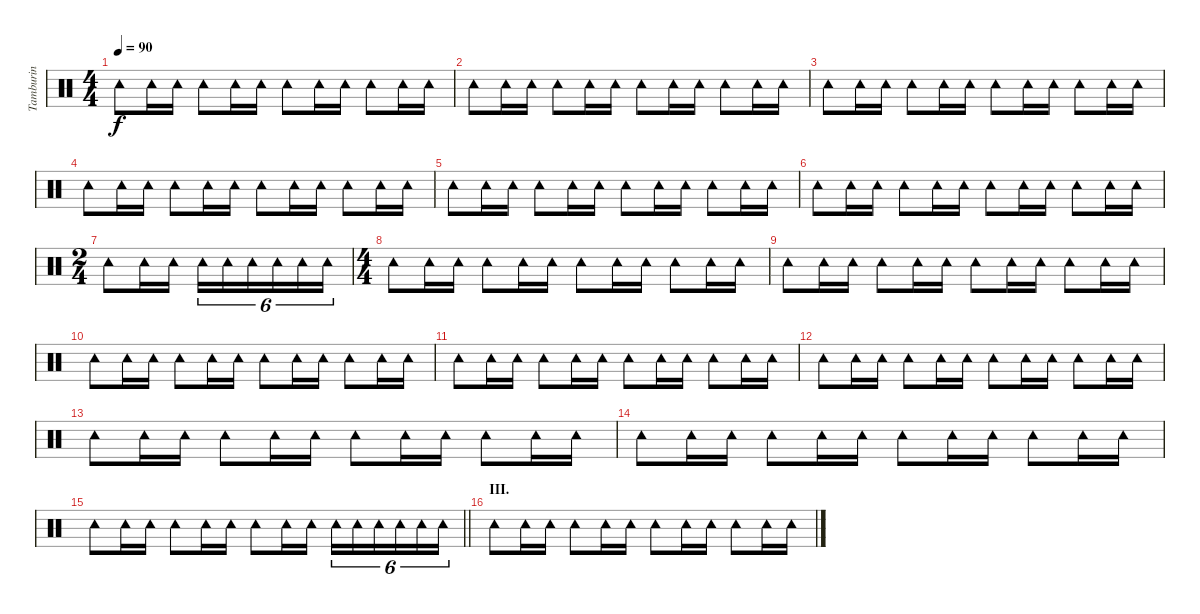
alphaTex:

\track ("Tamburin" "Tamburin") {instrument percussion}
\staff {score}
\articulation defaults
\ts (4 4)
\tempo 90
\clef neutral
\ks c "Tambourine (hit)".8{dy f} "Tambourine (hit)".16 "Tambourine (hit)".16 "Tambourine (hit)".8 "Tambourine (hit)".16 "Tambourine (hit)".16 "Tambourine (hit)".8 "Tambourine (hit)".16 "Tambourine (hit)".16 "Tambourine (hit)".8 "Tambourine (hit)".16 "Tambourine (hit)".16
|
"Tambourine (hit)".8 "Tambourine (hit)".16 "Tambourine (hit)".16 "Tambourine (hit)".8 "Tambourine (hit)".16 "Tambourine (hit)".16 "Tambourine (hit)".8 "Tambourine (hit)".16 "Tambourine (hit)".16 "Tambourine (hit)".8 "Tambourine (hit)".16 "Tambourine (hit)".16 |
"Tambourine (hit)".8 "Tambourine (hit)".16 "Tambourine (hit)".16 "Tambourine (hit)".8 "Tambourine (hit)".16 "Tambourine (hit)".16 "Tambourine (hit)".8 "Tambourine (hit)".16 "Tambourine (hit)".16 "Tambourine (hit)".8 "Tambourine (hit)".16 "Tambourine (hit)".16 |
"Tambourine (hit)".8 "Tambourine (hit)".16 "Tambourine (hit)".16 "Tambourine (hit)".8 "Tambourine (hit)".16 "Tambourine (hit)".16 "Tambourine (hit)".8 "Tambourine (hit)".16 "Tambourine (hit)".16 "Tambourine (hit)".8 "Tambourine (hit)".16 "Tambourine (hit)".16 |
"Tambourine (hit)".8 "Tambourine (hit)".16 "Tambourine (hit)".16 "Tambourine (hit)".8 "Tambourine (hit)".16 "Tambourine (hit)".16 "Tambourine (hit)".8 "Tambourine (hit)".16 "Tambourine (hit)".16 "Tambourine (hit)".8 "Tambourine (hit)".16 "Tambourine (hit)".16 |
"Tambourine (hit)".8 "Tambourine (hit)".16 "Tambourine (hit)".16 "Tambourine (hit)".8 "Tambourine (hit)".16 "Tambourine (hit)".16 "Tambourine (hit)".8 "Tambourine (hit)".16 "Tambourine (hit)".16 "Tambourine (hit)".8 "Tambourine (hit)".16 "Tambourine (hit)".16 |
\ts (2 4)
"Tambourine (hit)".8 "Tambourine (hit)".16 "Tambourine (hit)".16 "Tambourine (hit)".16{tu (6 4)} "Tambourine (hit)".16{tu (6 4)} "Tambourine (hit)".16{tu (6 4)} "Tambourine (hit)".16{tu (6 4)} "Tambourine (hit)".16{tu (6 4)} "Tambourine (hit)".16{tu (6 4)} |
\ts (4 4)
"Tambourine (hit)".8 "Tambourine (hit)".16 "Tambourine (hit)".16 "Tambourine (hit)".8 "Tambourine (hit)".16 "Tambourine (hit)".16 "Tambourine (hit)".8 "Tambourine (hit)".16 "Tambourine (hit)".16 "Tambourine (hit)".8 "Tambourine (hit)".16 "Tambourine (hit)".16 |
"Tambourine (hit)".8 "Tambourine (hit)".16 "Tambourine (hit)".16 "Tambourine (hit)".8 "Tambourine (hit)".16 "Tambourine (hit)".16 "Tambourine (hit)".8 "Tambourine (hit)".16 "Tambourine (hit)".16 "Tambourine (hit)".8 "Tambourine (hit)".16 "Tambourine (hit)".16 |
"Tambourine (hit)".8 "Tambourine (hit)".16 "Tambourine (hit)".16 "Tambourine (hit)".8 "Tambourine (hit)".16 "Tambourine (hit)".16 "Tambourine (hit)".8 "Tambourine (hit)".16 "Tambourine (hit)".16 "Tambourine (hit)".8 "Tambourine (hit)".16 "Tambourine (hit)".16 |
"Tambourine (hit)".8 "Tambourine (hit)".16 "Tambourine (hit)".16 "Tambourine (hit)".8 "Tambourine (hit)".16 "Tambourine (hit)".16 "Tambourine (hit)".8 "Tambourine (hit)".16 "Tambourine (hit)".16 "Tambourine (hit)".8 "Tambourine (hit)".16 "Tambourine (hit)".16 |
"Tambourine (hit)".8 "Tambourine (hit)".16 "Tambourine (hit)".16 "Tambourine (hit)".8 "Tambourine (hit)".16 "Tambourine (hit)".16 "Tambourine (hit)".8 "Tambourine (hit)".16 "Tambourine (hit)".16 "Tambourine (hit)".8 "Tambourine (hit)".16 "Tambourine (hit)".16 |
"Tambourine (hit)".8 "Tambourine (hit)".16 "Tambourine (hit)".16 "Tambourine (hit)".8 "Tambourine (hit)".16 "Tambourine (hit)".16 "Tambourine (hit)".8 "Tambourine (hit)".16 "Tambourine (hit)".16 "Tambourine (hit)".8 "Tambourine (hit)".16 "Tambourine (hit)".16 |
"Tambourine (hit)".8 "Tambourine (hit)".16 "Tambourine (hit)".16 "Tambourine (hit)".8 "Tambourine (hit)".16 "Tambourine (hit)".16 "Tambourine (hit)".8 "Tambourine (hit)".16 "Tambourine (hit)".16 "Tambourine (hit)".8 "Tambourine (hit)".16 "Tambourine (hit)".16 |
\barLineRight lightlight "Tambourine (hit)".8 "Tambourine (hit)".16 "Tambourine (hit)".16 "Tambourine (hit)".8 "Tambourine (hit)".16 "Tambourine (hit)".16 "Tambourine (hit)".8 "Tambourine (hit)".16 "Tambourine (hit)".16 "Tambourine (hit)".16{tu (6 4) beam merge} "Tambourine (hit)".16{tu (6 4) beam merge} "Tambourine (hit)".16{tu (6 4) beam merge} "Tambourine (hit)".16{tu (6 4) beam merge} "Tambourine (hit)".16{tu (6 4) beam merge} "Tambourine (hit)".16{tu (6 4)}
|
\section ("" "III.")
"Tambourine (hit)".8 "Tambourine (hit)".16 "Tambourine (hit)".16 "Tambourine (hit)".8 "Tambourine (hit)".16 "Tambourine (hit)".16 "Tambourine (hit)".8 "Tambourine (hit)".16 "Tambourine (hit)".16 "Tambourine (hit)".8 "Tambourine (hit)".16 "Tambourine (hit)".16
